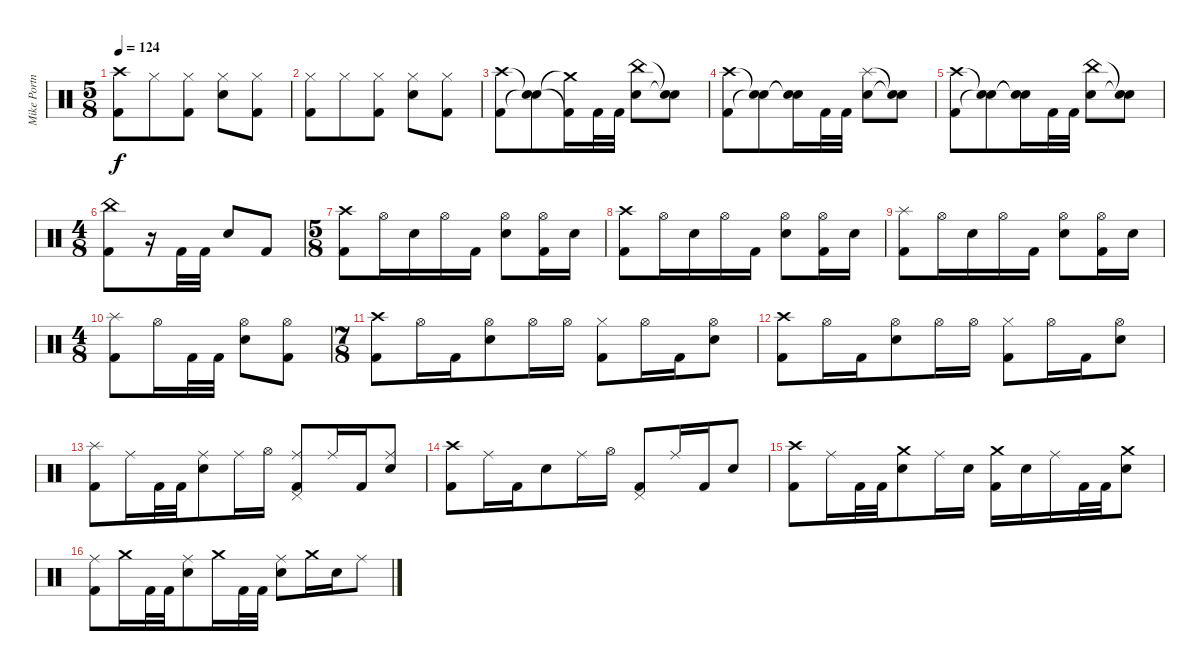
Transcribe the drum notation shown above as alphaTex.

\track ("Mike Portnoy - Drums" "Mike Portn") {instrument percussion}
\staff {score}
\articulation defaults
\ts (5 8)
\tempo 124
\clef neutral
\ks c
("Crash high (hit)" "Kick (hit) 2").8{dy f} "Hi-Hat (closed)".8 ("Hi-Hat (closed)" "Kick (hit) 2").8 ("Hi-Hat (closed)" "Electric Snare (hit)").8 ("Hi-Hat (closed)" "Kick (hit) 2").8 |
("Hi-Hat (closed)" "Kick (hit) 2").8 "Hi-Hat (closed)".8 ("Hi-Hat (closed)" "Kick (hit) 2").8 ("Hi-Hat (closed)" "Electric Snare (hit)").8 ("Hi-Hat (closed)" "Kick (hit) 2").8 |
("Crash high (hit)" "Kick (hit) 2").8 ("Snare (hit)"{t} "Snare (hit)"{t}).8 ("Crash medium (hit)"{t} "Kick (hit) 2"{t}).16 "Kick (hit) 2".32 "Kick (hit) 2".32 ("China (hit)" "Electric Snare (hit)").8 ("Snare (hit)"{t} "Snare (hit)"{t}).8 |
("Crash high (hit)" "Kick (hit) 2").8 ("Snare (hit)"{t} "Snare (hit)"{t}).8 ("Snare (hit)"{t} "Snare (hit)"{t}).16 "Kick (hit) 2".32 "Kick (hit) 2".32 ("Splash (hit)" "Electric Snare (hit)").8 ("Snare (hit)"{t} "Snare (hit)"{t}).8 |
("Crash high (hit)" "Kick (hit) 2").8 ("Snare (hit)"{t} "Snare (hit)"{t}).8 ("Snare (hit)"{t} "Snare (hit)"{t}).16 "Kick (hit) 2".32 "Kick (hit) 2".32 ("China (hit)" "Electric Snare (hit)").8 ("Snare (hit)"{t} "Snare (hit)"{t}).8 |
\ts (4 8)
("China (hit)" "Kick (hit) 2").8 r.16 "Kick (hit) 2".32 "Kick (hit) 2".32 "Electric Snare (hit)".8 "Kick (hit) 2".8 |
\ts (5 8)
("Crash high (hit)" "Kick (hit) 2").8 "Hi-Hat (open)".16 "Electric Snare (hit)".16 "Hi-Hat (open)".16 "Kick (hit) 2".16 ("Hi-Hat (open)" "Electric Snare (hit)").8 ("Hi-Hat (open)" "Kick (hit) 2").16 "Electric Snare (hit)".16 |
("Crash high (hit)" "Kick (hit) 2").8 "Hi-Hat (open)".16 "Electric Snare (hit)".16 "Hi-Hat (open)".16 "Kick (hit) 2".16 ("Hi-Hat (open)" "Electric Snare (hit)").8 ("Hi-Hat (open)" "Kick (hit) 2").16 "Electric Snare (hit)".16 |
("Splash (hit)" "Kick (hit) 2").8 "Hi-Hat (open)".16 "Electric Snare (hit)".16 "Hi-Hat (open)".16 "Kick (hit) 2".16 ("Hi-Hat (open)" "Electric Snare (hit)").8 ("Hi-Hat (open)" "Kick (hit) 2").16 "Electric Snare (hit)".16 |
\ts (4 8)
("Splash (hit)" "Kick (hit) 2").8 "Hi-Hat (open)".16 "Kick (hit) 2".32 "Kick (hit) 2".32 ("Hi-Hat (open)" "Electric Snare (hit)").8 ("Hi-Hat (open)" "Kick (hit) 2").8 |
\ts (7 8)
("Crash high (hit)" "Kick (hit) 2").8 "Hi-Hat (open)".16 "Kick (hit) 2".16 ("Hi-Hat (open)" "Electric Snare (hit)").8 "Hi-Hat (open)".16 "Hi-Hat (open)".16 ("Hi-Hat (closed)" "Kick (hit) 2").8 "Hi-Hat (open)".16 "Kick (hit) 2".16 ("Hi-Hat (open)" "Electric Snare (hit)").8 |
("Crash high (hit)" "Kick (hit) 2").8 "Hi-Hat (open)".16 "Kick (hit) 2".16 ("Hi-Hat (open)" "Electric Snare (hit)").8 "Hi-Hat (open)".16 "Hi-Hat (open)".16 ("Hi-Hat (closed)" "Kick (hit) 2").8 "Hi-Hat (open)".16 "Kick (hit) 2".16 ("Hi-Hat (open)" "Electric Snare (hit)").8 |
("Splash (hit)" "Kick (hit) 2").8 "Ride (middle)".16 "Kick (hit) 2".32 "Kick (hit) 2".32 ("Ride (middle)" "Electric Snare (hit)").8 "Ride (middle)".16 "Hi-Hat (open)".16 ("Ride (middle)" "Pedal Hi-Hat (hit)" "Kick (hit) 2").8 "Ride (middle)".16 "Kick (hit) 2".16 ("Ride (middle)" "Electric Snare (hit)").8 |
("Crash high (hit)" "Kick (hit) 2").8 "Ride (middle)".16 "Kick (hit) 2".16 "Electric Snare (hit)".8 "Ride (middle)".16 "Hi-Hat (open)".16 ("Pedal Hi-Hat (hit)" "Kick (hit) 2").8 "Ride (middle)".16 "Kick (hit) 2".16 "Electric Snare (hit)".8 |
("Crash high (hit)" "Kick (hit) 2").8 "Ride (middle)".16 "Kick (hit) 2".32 "Kick (hit) 2".32 ("Crash medium (hit)" "Electric Snare (hit)").8 "Ride (middle)".16 "Electric Snare (hit)".16 ("Crash medium (hit)" "Kick (hit) 2").16 "Electric Snare (hit)".16 "Ride (middle)".16 "Kick (hit) 2".32 "Kick (hit) 2".32 ("Crash medium (hit)" "Electric Snare (hit)").8 |
("Ride (middle)" "Kick (hit) 2").8 "Crash medium (hit)".16 "Kick (hit) 2".32 "Kick (hit) 2".32 ("Ride (middle)" "Electric Snare (hit)").8 "Crash medium (hit)".16 "Kick (hit) 2".32 "Kick (hit) 2".32 ("Ride (middle)" "Electric Snare (hit)").8 "Crash medium (hit)".16 "Electric Snare (hit)".16 "Ride (middle)".8
